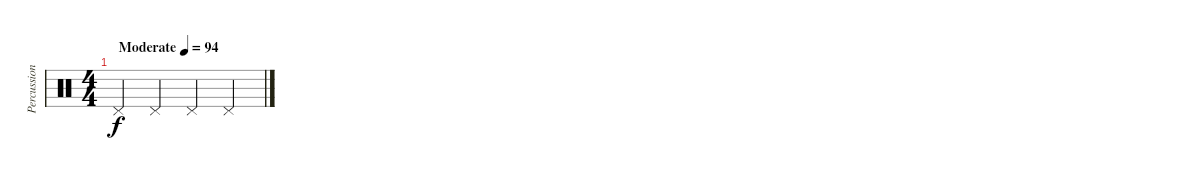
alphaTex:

\track ("Percussions" "Percussion") {instrument percussion}
\staff {score}
\articulation defaults
\ts (4 4)
\tempo (94 "Moderate")
\clef neutral
\ks c "Pedal Hi-Hat (hit)".4{dy f} "Pedal Hi-Hat (hit)".4 "Pedal Hi-Hat (hit)".4 "Pedal Hi-Hat (hit)".4
